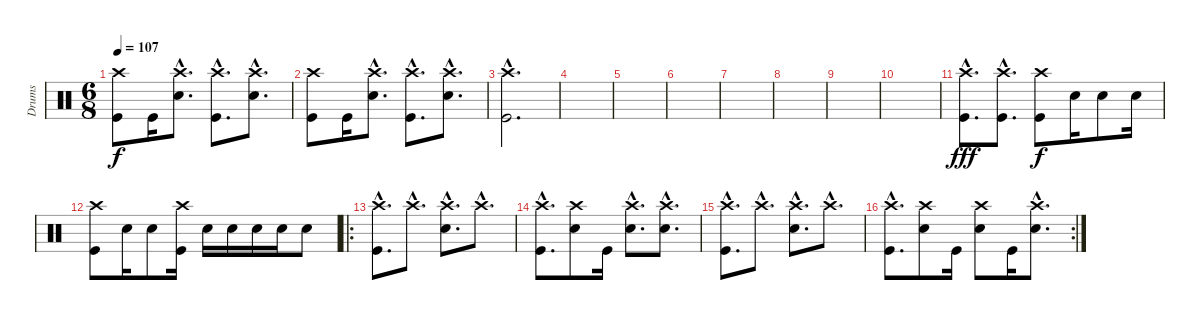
\track ("Drums" "Drums") {instrument percussion}
\staff {score}
\articulation defaults
\ts (6 8)
\tempo 107
\clef neutral
\ks c
("Crash high (hit)" "Kick (hit)").8{dy f} "Kick (hit)".16 ("Crash high (hit)"{hac} "Snare (hit) 2"{hac}).8{d} ("Crash high (hit)"{hac} "Kick (hit)"{hac}).8{d} ("Crash high (hit)"{hac} "Snare (hit) 2"{hac}).8{d} |
("Crash high (hit)" "Kick (hit)").8 "Kick (hit)".16 ("Crash high (hit)"{hac} "Snare (hit) 2"{hac}).8{d} ("Crash high (hit)"{hac} "Kick (hit)"{hac}).8{d} ("Crash high (hit)"{hac} "Snare (hit) 2"{hac}).8{d} |
("Crash high (hit)"{hac} "Kick (hit)"{hac}).2{d} |
|
|
|
|
|
|
|
("Crash high (hit)"{hac} "Kick (hit)"{hac}).8{d dy fff} ("Crash high (hit)"{hac} "Kick (hit)"{hac}).8{d} ("Crash high (hit)" "Kick (hit)").8{dy f} "Snare (hit) 2".16 "Snare (hit) 2".8 "Snare (hit) 2".16 |
("Crash high (hit)" "Kick (hit)").8 "Snare (hit) 2".16 "Snare (hit) 2".8 ("Crash high (hit)" "Kick (hit)").16 "Snare (hit) 2".16 "Snare (hit) 2".16 "Snare (hit) 2".16 "Snare (hit) 2".16 "Snare (hit) 2".8 |
\ro
("Crash high (hit)"{hac} "Kick (hit)"{hac}).8{d} "Crash high (hit)"{hac}.8{d} ("Crash high (hit)"{hac} "Snare (hit) 2"{hac}).8{d} "Crash high (hit)"{hac}.8{d} |
("Crash high (hit)"{hac} "Kick (hit)"{hac}).8{d} ("Crash high (hit)" "Snare (hit) 2").8 "Kick (hit)".16 ("Crash high (hit)"{hac} "Snare (hit) 2"{hac}).8{d} ("Crash high (hit)"{hac} "Snare (hit) 2"{hac}).8{d} |
("Crash high (hit)"{hac} "Kick (hit)"{hac}).8{d} "Crash high (hit)"{hac}.8{d} ("Crash high (hit)"{hac} "Snare (hit) 2"{hac}).8{d} "Crash high (hit)"{hac}.8{d} |
\rc 2
("Crash high (hit)"{hac} "Kick (hit)"{hac}).8{d} ("Crash high (hit)" "Snare (hit) 2").8 "Kick (hit)".16 ("Crash high (hit)" "Snare (hit) 2").8 "Kick (hit)".16 ("Crash high (hit)"{hac} "Snare (hit) 2"{hac}).8{d}
